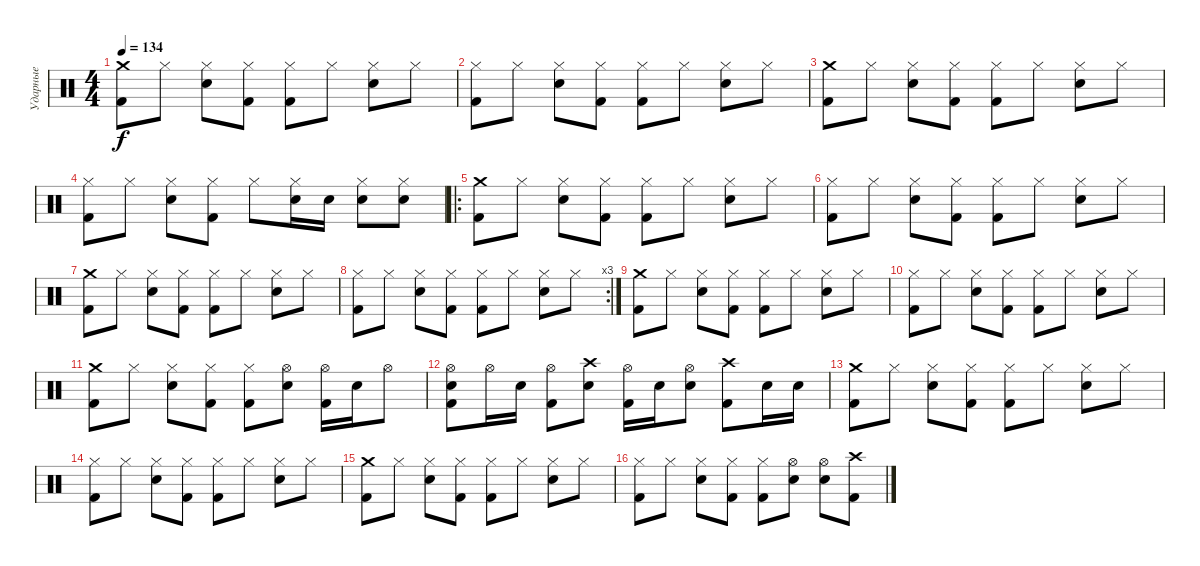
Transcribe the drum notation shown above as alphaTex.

\track ("Ударные" "Ударные") {instrument percussion}
\staff {score}
\articulation defaults
\ts (4 4)
\tempo 134
\clef neutral
\ks c
("Kick (hit) 2" "Crash medium (hit)").8{dy f} "Hi-Hat (closed)".8 ("Electric Snare (hit)" "Hi-Hat (closed)").8 ("Kick (hit) 2" "Hi-Hat (closed)").8 ("Kick (hit) 2" "Hi-Hat (closed)").8 "Hi-Hat (closed)".8 ("Electric Snare (hit)" "Hi-Hat (closed)").8 "Hi-Hat (closed)".8 |
("Kick (hit) 2" "Hi-Hat (closed)").8 "Hi-Hat (closed)".8 ("Electric Snare (hit)" "Hi-Hat (closed)").8 ("Kick (hit) 2" "Hi-Hat (closed)").8 ("Kick (hit) 2" "Hi-Hat (closed)").8 "Hi-Hat (closed)".8 ("Electric Snare (hit)" "Hi-Hat (closed)").8 "Hi-Hat (closed)".8 |
("Kick (hit) 2" "Crash medium (hit)").8 "Hi-Hat (closed)".8 ("Electric Snare (hit)" "Hi-Hat (closed)").8 ("Kick (hit) 2" "Hi-Hat (closed)").8 ("Kick (hit) 2" "Hi-Hat (closed)").8 "Hi-Hat (closed)".8 ("Electric Snare (hit)" "Hi-Hat (closed)").8 "Hi-Hat (closed)".8 |
("Kick (hit) 2" "Hi-Hat (closed)").8 "Hi-Hat (closed)".8 ("Electric Snare (hit)" "Hi-Hat (closed)").8 ("Kick (hit) 2" "Hi-Hat (closed)").8 "Hi-Hat (closed)".8 ("Electric Snare (hit)" "Hi-Hat (closed)").16 "Electric Snare (hit)".16 ("Electric Snare (hit)" "Hi-Hat (closed)").8 ("Electric Snare (hit)" "Hi-Hat (closed)").8 |
\ro
("Kick (hit) 2" "Crash medium (hit)").8 "Hi-Hat (closed)".8 ("Electric Snare (hit)" "Hi-Hat (closed)").8 ("Kick (hit) 2" "Hi-Hat (closed)").8 ("Kick (hit) 2" "Hi-Hat (closed)").8 "Hi-Hat (closed)".8 ("Electric Snare (hit)" "Hi-Hat (closed)").8 "Hi-Hat (closed)".8 |
("Kick (hit) 2" "Hi-Hat (closed)").8 "Hi-Hat (closed)".8 ("Electric Snare (hit)" "Hi-Hat (closed)").8 ("Kick (hit) 2" "Hi-Hat (closed)").8 ("Kick (hit) 2" "Hi-Hat (closed)").8 "Hi-Hat (closed)".8 ("Electric Snare (hit)" "Hi-Hat (closed)").8 "Hi-Hat (closed)".8 |
("Kick (hit) 2" "Crash medium (hit)").8 "Hi-Hat (closed)".8 ("Electric Snare (hit)" "Hi-Hat (closed)").8 ("Kick (hit) 2" "Hi-Hat (closed)").8 ("Kick (hit) 2" "Hi-Hat (closed)").8 "Hi-Hat (closed)".8 ("Electric Snare (hit)" "Hi-Hat (closed)").8 "Hi-Hat (closed)".8 |
\rc 3
("Kick (hit) 2" "Hi-Hat (closed)").8 "Hi-Hat (closed)".8 ("Electric Snare (hit)" "Hi-Hat (closed)").8 ("Kick (hit) 2" "Hi-Hat (closed)").8 ("Kick (hit) 2" "Hi-Hat (closed)").8 "Hi-Hat (closed)".8 ("Electric Snare (hit)" "Hi-Hat (closed)").8 "Hi-Hat (closed)".8 |
("Kick (hit) 2" "Crash medium (hit)").8 "Hi-Hat (closed)".8 ("Electric Snare (hit)" "Hi-Hat (closed)").8 ("Kick (hit) 2" "Hi-Hat (closed)").8 ("Kick (hit) 2" "Hi-Hat (closed)").8 "Hi-Hat (closed)".8 ("Electric Snare (hit)" "Hi-Hat (closed)").8 "Hi-Hat (closed)".8 |
("Kick (hit) 2" "Hi-Hat (closed)").8 "Hi-Hat (closed)".8 ("Electric Snare (hit)" "Hi-Hat (closed)").8 ("Kick (hit) 2" "Hi-Hat (closed)").8 ("Kick (hit) 2" "Hi-Hat (closed)").8 "Hi-Hat (closed)".8 ("Electric Snare (hit)" "Hi-Hat (closed)").8 "Hi-Hat (closed)".8 |
("Kick (hit) 2" "Crash medium (hit)").8 "Hi-Hat (closed)".8 ("Electric Snare (hit)" "Hi-Hat (closed)").8 ("Kick (hit) 2" "Hi-Hat (closed)").8 ("Kick (hit) 2" "Hi-Hat (closed)").8 ("Electric Snare (hit)" "Hi-Hat (open)").8 ("Kick (hit) 2" "Hi-Hat (open)").16 "Electric Snare (hit)".16 "Hi-Hat (open)".8 |
("Kick (hit) 2" "Hi-Hat (open)" "Electric Snare (hit)").8 "Hi-Hat (open)".16 "Electric Snare (hit)".16 ("Kick (hit) 2" "Hi-Hat (open)").8 ("Electric Snare (hit)" "Crash high (hit)").8 ("Kick (hit) 2" "Hi-Hat (open)").16 "Electric Snare (hit)".16 ("Electric Snare (hit)" "Hi-Hat (open)").8 ("Kick (hit) 2" "Crash high (hit)").8 "Electric Snare (hit)".16 "Electric Snare (hit)".16 |
("Kick (hit) 2" "Crash medium (hit)").8 "Hi-Hat (closed)".8 ("Electric Snare (hit)" "Hi-Hat (closed)").8 ("Kick (hit) 2" "Hi-Hat (closed)").8 ("Kick (hit) 2" "Hi-Hat (closed)").8 "Hi-Hat (closed)".8 ("Electric Snare (hit)" "Hi-Hat (closed)").8 "Hi-Hat (closed)".8 |
("Kick (hit) 2" "Hi-Hat (closed)").8 "Hi-Hat (closed)".8 ("Electric Snare (hit)" "Hi-Hat (closed)").8 ("Kick (hit) 2" "Hi-Hat (closed)").8 ("Kick (hit) 2" "Hi-Hat (closed)").8 "Hi-Hat (closed)".8 ("Electric Snare (hit)" "Hi-Hat (closed)").8 "Hi-Hat (closed)".8 |
("Kick (hit) 2" "Crash medium (hit)").8 "Hi-Hat (closed)".8 ("Electric Snare (hit)" "Hi-Hat (closed)").8 ("Kick (hit) 2" "Hi-Hat (closed)").8 ("Kick (hit) 2" "Hi-Hat (closed)").8 "Hi-Hat (closed)".8 ("Electric Snare (hit)" "Hi-Hat (closed)").8 "Hi-Hat (closed)".8 |
("Kick (hit) 2" "Hi-Hat (closed)").8 "Hi-Hat (closed)".8 ("Electric Snare (hit)" "Hi-Hat (closed)").8 ("Kick (hit) 2" "Hi-Hat (closed)").8 ("Kick (hit) 2" "Hi-Hat (closed)").8 ("Electric Snare (hit)" "Hi-Hat (open)").8 ("Electric Snare (hit)" "Hi-Hat (open)").8 ("Kick (hit) 2" "Crash high (hit)").8
